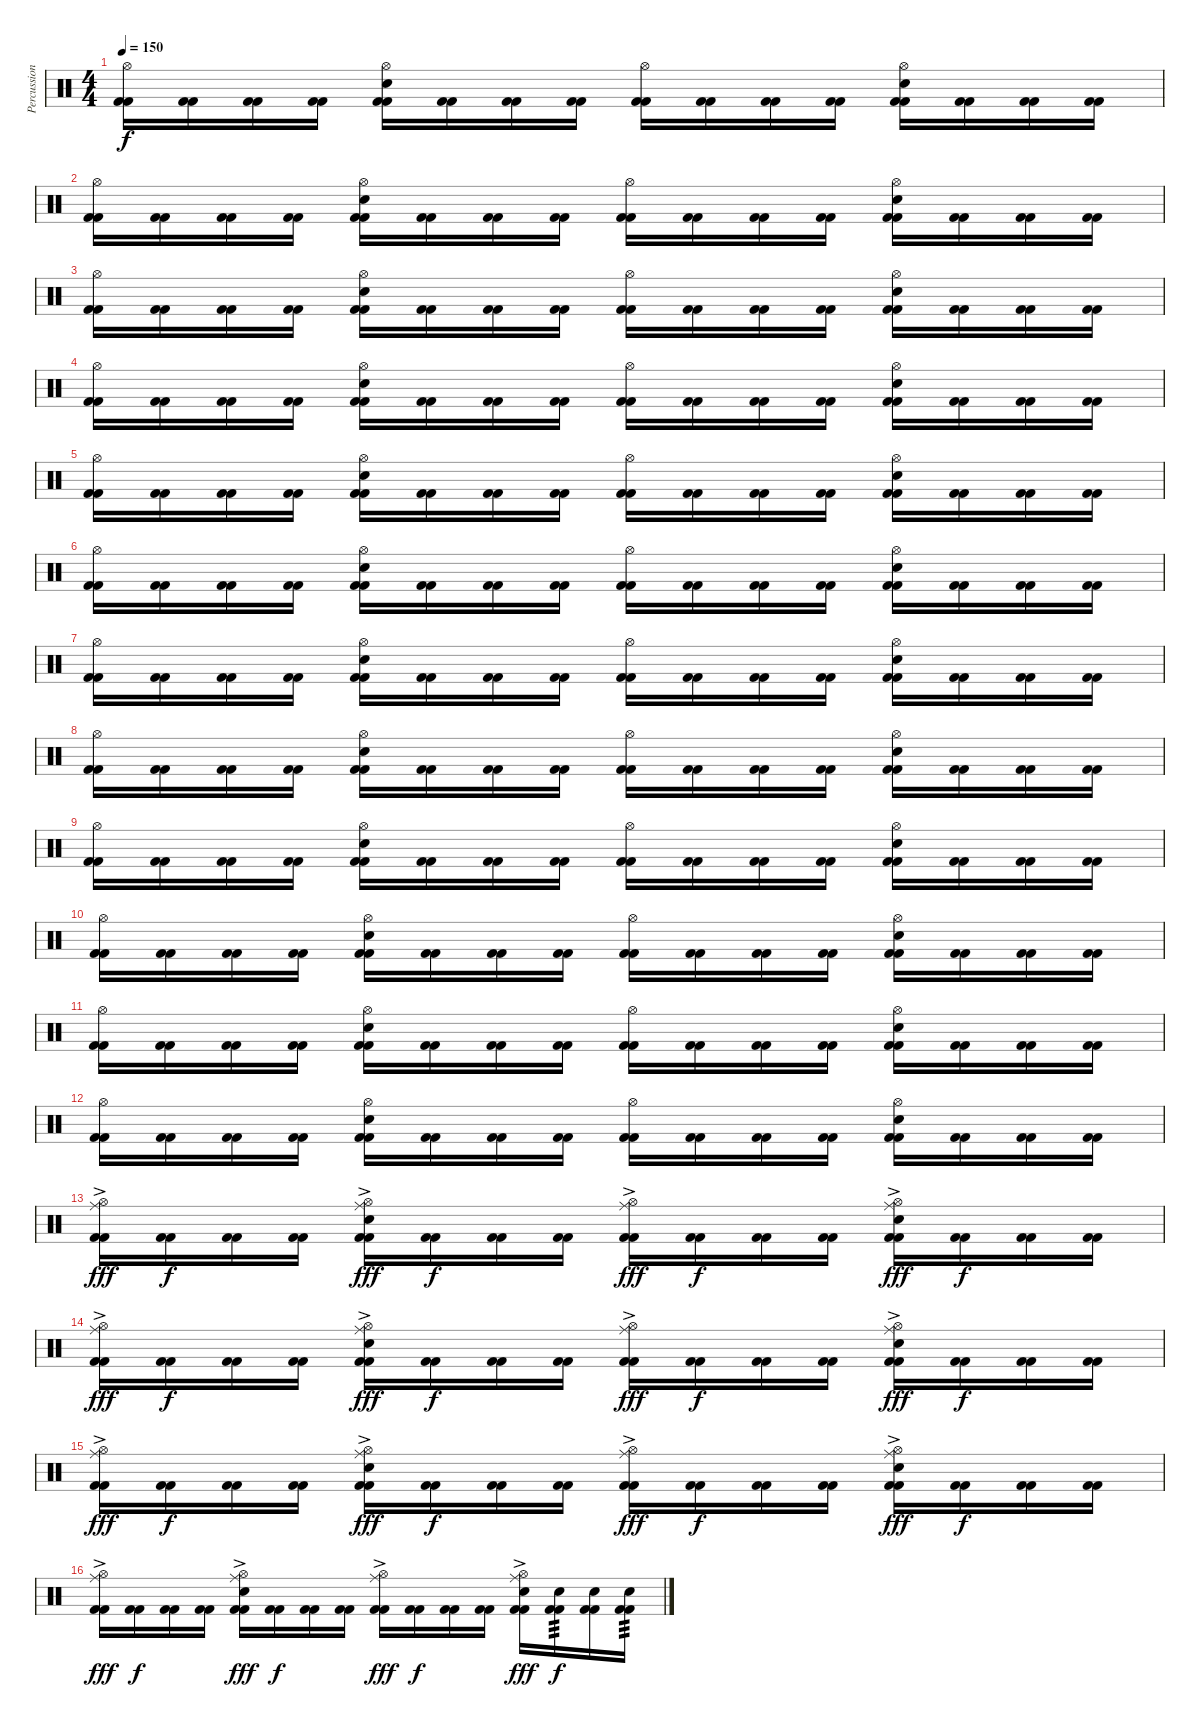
\track ("Percussions" "Percussion") {instrument percussion}
\staff {score}
\articulation defaults
\ts (4 4)
\tempo 150
\clef neutral
\ks c
("Hi-Hat (open)" "Kick (hit) 2" "Kick (hit) 2").16{dy f} ("Kick (hit) 2" "Kick (hit) 2").16 ("Kick (hit) 2" "Kick (hit) 2").16 ("Kick (hit) 2" "Kick (hit) 2").16 ("Snare (hit) 2" "Hi-Hat (open)" "Kick (hit) 2" "Kick (hit) 2").16 ("Kick (hit) 2" "Kick (hit) 2").16 ("Kick (hit) 2" "Kick (hit) 2").16 ("Kick (hit) 2" "Kick (hit) 2").16 ("Hi-Hat (open)" "Kick (hit) 2" "Kick (hit) 2").16 ("Kick (hit) 2" "Kick (hit) 2").16 ("Kick (hit) 2" "Kick (hit) 2").16 ("Kick (hit) 2" "Kick (hit) 2").16 ("Snare (hit) 2" "Hi-Hat (open)" "Kick (hit) 2" "Kick (hit) 2").16 ("Kick (hit) 2" "Kick (hit) 2").16 ("Kick (hit) 2" "Kick (hit) 2").16 ("Kick (hit) 2" "Kick (hit) 2").16 |
("Hi-Hat (open)" "Kick (hit) 2" "Kick (hit) 2").16 ("Kick (hit) 2" "Kick (hit) 2").16 ("Kick (hit) 2" "Kick (hit) 2").16 ("Kick (hit) 2" "Kick (hit) 2").16 ("Snare (hit) 2" "Hi-Hat (open)" "Kick (hit) 2" "Kick (hit) 2").16 ("Kick (hit) 2" "Kick (hit) 2").16 ("Kick (hit) 2" "Kick (hit) 2").16 ("Kick (hit) 2" "Kick (hit) 2").16 ("Hi-Hat (open)" "Kick (hit) 2" "Kick (hit) 2").16 ("Kick (hit) 2" "Kick (hit) 2").16 ("Kick (hit) 2" "Kick (hit) 2").16 ("Kick (hit) 2" "Kick (hit) 2").16 ("Snare (hit) 2" "Hi-Hat (open)" "Kick (hit) 2" "Kick (hit) 2").16 ("Kick (hit) 2" "Kick (hit) 2").16 ("Kick (hit) 2" "Kick (hit) 2").16 ("Kick (hit) 2" "Kick (hit) 2").16 |
("Hi-Hat (open)" "Kick (hit) 2" "Kick (hit) 2").16 ("Kick (hit) 2" "Kick (hit) 2").16 ("Kick (hit) 2" "Kick (hit) 2").16 ("Kick (hit) 2" "Kick (hit) 2").16 ("Snare (hit) 2" "Hi-Hat (open)" "Kick (hit) 2" "Kick (hit) 2").16 ("Kick (hit) 2" "Kick (hit) 2").16 ("Kick (hit) 2" "Kick (hit) 2").16 ("Kick (hit) 2" "Kick (hit) 2").16 ("Hi-Hat (open)" "Kick (hit) 2" "Kick (hit) 2").16 ("Kick (hit) 2" "Kick (hit) 2").16 ("Kick (hit) 2" "Kick (hit) 2").16 ("Kick (hit) 2" "Kick (hit) 2").16 ("Snare (hit) 2" "Hi-Hat (open)" "Kick (hit) 2" "Kick (hit) 2").16 ("Kick (hit) 2" "Kick (hit) 2").16 ("Kick (hit) 2" "Kick (hit) 2").16 ("Kick (hit) 2" "Kick (hit) 2").16 |
("Hi-Hat (open)" "Kick (hit) 2" "Kick (hit) 2").16 ("Kick (hit) 2" "Kick (hit) 2").16 ("Kick (hit) 2" "Kick (hit) 2").16 ("Kick (hit) 2" "Kick (hit) 2").16 ("Snare (hit) 2" "Hi-Hat (open)" "Kick (hit) 2" "Kick (hit) 2").16 ("Kick (hit) 2" "Kick (hit) 2").16 ("Kick (hit) 2" "Kick (hit) 2").16 ("Kick (hit) 2" "Kick (hit) 2").16 ("Hi-Hat (open)" "Kick (hit) 2" "Kick (hit) 2").16 ("Kick (hit) 2" "Kick (hit) 2").16 ("Kick (hit) 2" "Kick (hit) 2").16 ("Kick (hit) 2" "Kick (hit) 2").16 ("Snare (hit) 2" "Hi-Hat (open)" "Kick (hit) 2" "Kick (hit) 2").16 ("Kick (hit) 2" "Kick (hit) 2").16 ("Kick (hit) 2" "Kick (hit) 2").16 ("Kick (hit) 2" "Kick (hit) 2").16 |
("Hi-Hat (open)" "Kick (hit) 2" "Kick (hit) 2").16 ("Kick (hit) 2" "Kick (hit) 2").16 ("Kick (hit) 2" "Kick (hit) 2").16 ("Kick (hit) 2" "Kick (hit) 2").16 ("Snare (hit) 2" "Hi-Hat (open)" "Kick (hit) 2" "Kick (hit) 2").16 ("Kick (hit) 2" "Kick (hit) 2").16 ("Kick (hit) 2" "Kick (hit) 2").16 ("Kick (hit) 2" "Kick (hit) 2").16 ("Hi-Hat (open)" "Kick (hit) 2" "Kick (hit) 2").16 ("Kick (hit) 2" "Kick (hit) 2").16 ("Kick (hit) 2" "Kick (hit) 2").16 ("Kick (hit) 2" "Kick (hit) 2").16 ("Snare (hit) 2" "Hi-Hat (open)" "Kick (hit) 2" "Kick (hit) 2").16 ("Kick (hit) 2" "Kick (hit) 2").16 ("Kick (hit) 2" "Kick (hit) 2").16 ("Kick (hit) 2" "Kick (hit) 2").16 |
("Hi-Hat (open)" "Kick (hit) 2" "Kick (hit) 2").16 ("Kick (hit) 2" "Kick (hit) 2").16 ("Kick (hit) 2" "Kick (hit) 2").16 ("Kick (hit) 2" "Kick (hit) 2").16 ("Snare (hit) 2" "Hi-Hat (open)" "Kick (hit) 2" "Kick (hit) 2").16 ("Kick (hit) 2" "Kick (hit) 2").16 ("Kick (hit) 2" "Kick (hit) 2").16 ("Kick (hit) 2" "Kick (hit) 2").16 ("Hi-Hat (open)" "Kick (hit) 2" "Kick (hit) 2").16 ("Kick (hit) 2" "Kick (hit) 2").16 ("Kick (hit) 2" "Kick (hit) 2").16 ("Kick (hit) 2" "Kick (hit) 2").16 ("Snare (hit) 2" "Hi-Hat (open)" "Kick (hit) 2" "Kick (hit) 2").16 ("Kick (hit) 2" "Kick (hit) 2").16 ("Kick (hit) 2" "Kick (hit) 2").16 ("Kick (hit) 2" "Kick (hit) 2").16 |
("Hi-Hat (open)" "Kick (hit) 2" "Kick (hit) 2").16 ("Kick (hit) 2" "Kick (hit) 2").16 ("Kick (hit) 2" "Kick (hit) 2").16 ("Kick (hit) 2" "Kick (hit) 2").16 ("Snare (hit) 2" "Hi-Hat (open)" "Kick (hit) 2" "Kick (hit) 2").16 ("Kick (hit) 2" "Kick (hit) 2").16 ("Kick (hit) 2" "Kick (hit) 2").16 ("Kick (hit) 2" "Kick (hit) 2").16 ("Hi-Hat (open)" "Kick (hit) 2" "Kick (hit) 2").16 ("Kick (hit) 2" "Kick (hit) 2").16 ("Kick (hit) 2" "Kick (hit) 2").16 ("Kick (hit) 2" "Kick (hit) 2").16 ("Snare (hit) 2" "Hi-Hat (open)" "Kick (hit) 2" "Kick (hit) 2").16 ("Kick (hit) 2" "Kick (hit) 2").16 ("Kick (hit) 2" "Kick (hit) 2").16 ("Kick (hit) 2" "Kick (hit) 2").16 |
("Hi-Hat (open)" "Kick (hit) 2" "Kick (hit) 2").16 ("Kick (hit) 2" "Kick (hit) 2").16 ("Kick (hit) 2" "Kick (hit) 2").16 ("Kick (hit) 2" "Kick (hit) 2").16 ("Snare (hit) 2" "Hi-Hat (open)" "Kick (hit) 2" "Kick (hit) 2").16 ("Kick (hit) 2" "Kick (hit) 2").16 ("Kick (hit) 2" "Kick (hit) 2").16 ("Kick (hit) 2" "Kick (hit) 2").16 ("Hi-Hat (open)" "Kick (hit) 2" "Kick (hit) 2").16 ("Kick (hit) 2" "Kick (hit) 2").16 ("Kick (hit) 2" "Kick (hit) 2").16 ("Kick (hit) 2" "Kick (hit) 2").16 ("Snare (hit) 2" "Hi-Hat (open)" "Kick (hit) 2" "Kick (hit) 2").16 ("Kick (hit) 2" "Kick (hit) 2").16 ("Kick (hit) 2" "Kick (hit) 2").16 ("Kick (hit) 2" "Kick (hit) 2").16 |
("Hi-Hat (open)" "Kick (hit) 2" "Kick (hit) 2").16 ("Kick (hit) 2" "Kick (hit) 2").16 ("Kick (hit) 2" "Kick (hit) 2").16 ("Kick (hit) 2" "Kick (hit) 2").16 ("Snare (hit) 2" "Hi-Hat (open)" "Kick (hit) 2" "Kick (hit) 2").16 ("Kick (hit) 2" "Kick (hit) 2").16 ("Kick (hit) 2" "Kick (hit) 2").16 ("Kick (hit) 2" "Kick (hit) 2").16 ("Hi-Hat (open)" "Kick (hit) 2" "Kick (hit) 2").16 ("Kick (hit) 2" "Kick (hit) 2").16 ("Kick (hit) 2" "Kick (hit) 2").16 ("Kick (hit) 2" "Kick (hit) 2").16 ("Snare (hit) 2" "Hi-Hat (open)" "Kick (hit) 2" "Kick (hit) 2").16 ("Kick (hit) 2" "Kick (hit) 2").16 ("Kick (hit) 2" "Kick (hit) 2").16 ("Kick (hit) 2" "Kick (hit) 2").16 |
("Hi-Hat (open)" "Kick (hit) 2" "Kick (hit) 2").16 ("Kick (hit) 2" "Kick (hit) 2").16 ("Kick (hit) 2" "Kick (hit) 2").16 ("Kick (hit) 2" "Kick (hit) 2").16 ("Snare (hit) 2" "Hi-Hat (open)" "Kick (hit) 2" "Kick (hit) 2").16 ("Kick (hit) 2" "Kick (hit) 2").16 ("Kick (hit) 2" "Kick (hit) 2").16 ("Kick (hit) 2" "Kick (hit) 2").16 ("Hi-Hat (open)" "Kick (hit) 2" "Kick (hit) 2").16 ("Kick (hit) 2" "Kick (hit) 2").16 ("Kick (hit) 2" "Kick (hit) 2").16 ("Kick (hit) 2" "Kick (hit) 2").16 ("Snare (hit) 2" "Hi-Hat (open)" "Kick (hit) 2" "Kick (hit) 2").16 ("Kick (hit) 2" "Kick (hit) 2").16 ("Kick (hit) 2" "Kick (hit) 2").16 ("Kick (hit) 2" "Kick (hit) 2").16 |
("Hi-Hat (open)" "Kick (hit) 2" "Kick (hit) 2").16 ("Kick (hit) 2" "Kick (hit) 2").16 ("Kick (hit) 2" "Kick (hit) 2").16 ("Kick (hit) 2" "Kick (hit) 2").16 ("Snare (hit) 2" "Hi-Hat (open)" "Kick (hit) 2" "Kick (hit) 2").16 ("Kick (hit) 2" "Kick (hit) 2").16 ("Kick (hit) 2" "Kick (hit) 2").16 ("Kick (hit) 2" "Kick (hit) 2").16 ("Hi-Hat (open)" "Kick (hit) 2" "Kick (hit) 2").16 ("Kick (hit) 2" "Kick (hit) 2").16 ("Kick (hit) 2" "Kick (hit) 2").16 ("Kick (hit) 2" "Kick (hit) 2").16 ("Snare (hit) 2" "Hi-Hat (open)" "Kick (hit) 2" "Kick (hit) 2").16 ("Kick (hit) 2" "Kick (hit) 2").16 ("Kick (hit) 2" "Kick (hit) 2").16 ("Kick (hit) 2" "Kick (hit) 2").16 |
("Hi-Hat (open)" "Kick (hit) 2" "Kick (hit) 2").16 ("Kick (hit) 2" "Kick (hit) 2").16 ("Kick (hit) 2" "Kick (hit) 2").16 ("Kick (hit) 2" "Kick (hit) 2").16 ("Snare (hit) 2" "Hi-Hat (open)" "Kick (hit) 2" "Kick (hit) 2").16 ("Kick (hit) 2" "Kick (hit) 2").16 ("Kick (hit) 2" "Kick (hit) 2").16 ("Kick (hit) 2" "Kick (hit) 2").16 ("Hi-Hat (open)" "Kick (hit) 2" "Kick (hit) 2").16 ("Kick (hit) 2" "Kick (hit) 2").16 ("Kick (hit) 2" "Kick (hit) 2").16 ("Kick (hit) 2" "Kick (hit) 2").16 ("Snare (hit) 2" "Hi-Hat (open)" "Kick (hit) 2" "Kick (hit) 2").16 ("Kick (hit) 2" "Kick (hit) 2").16 ("Kick (hit) 2" "Kick (hit) 2").16 ("Kick (hit) 2" "Kick (hit) 2").16 |
("Ride (middle)"{ac} "Hi-Hat (open)" "Kick (hit) 2" "Kick (hit) 2").16{dy fff} ("Kick (hit) 2" "Kick (hit) 2").16{dy f} ("Kick (hit) 2" "Kick (hit) 2").16 ("Kick (hit) 2" "Kick (hit) 2").16 ("Ride (middle)"{ac} "Snare (hit) 2" "Hi-Hat (open)" "Kick (hit) 2" "Kick (hit) 2").16{dy fff} ("Kick (hit) 2" "Kick (hit) 2").16{dy f} ("Kick (hit) 2" "Kick (hit) 2").16 ("Kick (hit) 2" "Kick (hit) 2").16 ("Ride (middle)"{ac} "Hi-Hat (open)" "Kick (hit) 2" "Kick (hit) 2").16{dy fff} ("Kick (hit) 2" "Kick (hit) 2").16{dy f} ("Kick (hit) 2" "Kick (hit) 2").16 ("Kick (hit) 2" "Kick (hit) 2").16 ("Ride (middle)"{ac} "Snare (hit) 2" "Hi-Hat (open)" "Kick (hit) 2" "Kick (hit) 2").16{dy fff} ("Kick (hit) 2" "Kick (hit) 2").16{dy f} ("Kick (hit) 2" "Kick (hit) 2").16 ("Kick (hit) 2" "Kick (hit) 2").16 |
("Ride (middle)"{ac} "Hi-Hat (open)" "Kick (hit) 2" "Kick (hit) 2").16{dy fff} ("Kick (hit) 2" "Kick (hit) 2").16{dy f} ("Kick (hit) 2" "Kick (hit) 2").16 ("Kick (hit) 2" "Kick (hit) 2").16 ("Ride (middle)"{ac} "Snare (hit) 2" "Hi-Hat (open)" "Kick (hit) 2" "Kick (hit) 2").16{dy fff} ("Kick (hit) 2" "Kick (hit) 2").16{dy f} ("Kick (hit) 2" "Kick (hit) 2").16 ("Kick (hit) 2" "Kick (hit) 2").16 ("Ride (middle)"{ac} "Hi-Hat (open)" "Kick (hit) 2" "Kick (hit) 2").16{dy fff} ("Kick (hit) 2" "Kick (hit) 2").16{dy f} ("Kick (hit) 2" "Kick (hit) 2").16 ("Kick (hit) 2" "Kick (hit) 2").16 ("Ride (middle)"{ac} "Snare (hit) 2" "Hi-Hat (open)" "Kick (hit) 2" "Kick (hit) 2").16{dy fff} ("Kick (hit) 2" "Kick (hit) 2").16{dy f} ("Kick (hit) 2" "Kick (hit) 2").16 ("Kick (hit) 2" "Kick (hit) 2").16 |
("Ride (middle)"{ac} "Hi-Hat (open)" "Kick (hit) 2" "Kick (hit) 2").16{dy fff} ("Kick (hit) 2" "Kick (hit) 2").16{dy f} ("Kick (hit) 2" "Kick (hit) 2").16 ("Kick (hit) 2" "Kick (hit) 2").16 ("Ride (middle)"{ac} "Snare (hit) 2" "Hi-Hat (open)" "Kick (hit) 2" "Kick (hit) 2").16{dy fff} ("Kick (hit) 2" "Kick (hit) 2").16{dy f} ("Kick (hit) 2" "Kick (hit) 2").16 ("Kick (hit) 2" "Kick (hit) 2").16 ("Ride (middle)"{ac} "Hi-Hat (open)" "Kick (hit) 2" "Kick (hit) 2").16{dy fff} ("Kick (hit) 2" "Kick (hit) 2").16{dy f} ("Kick (hit) 2" "Kick (hit) 2").16 ("Kick (hit) 2" "Kick (hit) 2").16 ("Ride (middle)"{ac} "Snare (hit) 2" "Hi-Hat (open)" "Kick (hit) 2" "Kick (hit) 2").16{dy fff} ("Kick (hit) 2" "Kick (hit) 2").16{dy f} ("Kick (hit) 2" "Kick (hit) 2").16 ("Kick (hit) 2" "Kick (hit) 2").16 |
("Ride (middle)"{ac} "Hi-Hat (open)" "Kick (hit) 2" "Kick (hit) 2").16{dy fff} ("Kick (hit) 2" "Kick (hit) 2").16{dy f} ("Kick (hit) 2" "Kick (hit) 2").16 ("Kick (hit) 2" "Kick (hit) 2").16 ("Ride (middle)"{ac} "Snare (hit) 2" "Hi-Hat (open)" "Kick (hit) 2" "Kick (hit) 2").16{dy fff} ("Kick (hit) 2" "Kick (hit) 2").16{dy f} ("Kick (hit) 2" "Kick (hit) 2").16 ("Kick (hit) 2" "Kick (hit) 2").16 ("Ride (middle)"{ac} "Hi-Hat (open)" "Kick (hit) 2" "Kick (hit) 2").16{dy fff} ("Kick (hit) 2" "Kick (hit) 2").16{dy f} ("Kick (hit) 2" "Kick (hit) 2").16 ("Kick (hit) 2" "Kick (hit) 2").16 ("Ride (middle)"{ac} "Snare (hit) 2" "Hi-Hat (open)" "Kick (hit) 2" "Kick (hit) 2").16{dy fff} ("Snare (hit) 2" "Kick (hit) 2" "Kick (hit) 2").16{tp 3 dy f} ("Snare (hit) 2" "Kick (hit) 2" "Kick (hit) 2").16 ("Snare (hit) 2" "Kick (hit) 2" "Kick (hit) 2").16{tp 3}
